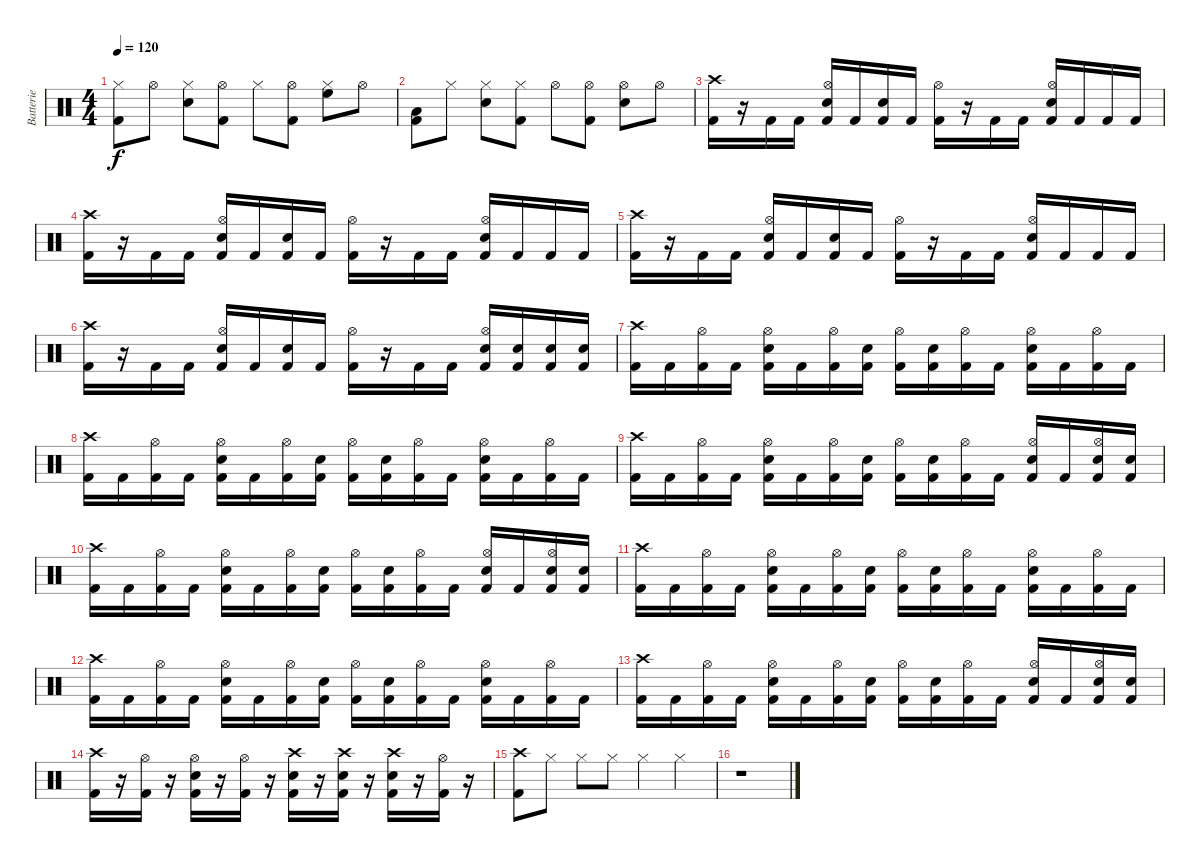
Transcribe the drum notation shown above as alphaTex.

\track ("Batterie" "Batterie") {instrument percussion}
\staff {score}
\articulation defaults
\ts (4 4)
\tempo 120
\clef neutral
\ks c
("Hi-Hat (closed)" "Kick (hit) 2").8{dy f} "Hi-Hat (open)".8 ("Hi-Hat (closed)" "Snare (hit) 2").8 ("Hi-Hat (open)" "Kick (hit) 2").8 "Hi-Hat (closed)".8 ("Hi-Hat (open)" "Kick (hit) 2").8 ("Hi-Hat (closed)" "High Floor Tom (hit)").8 "Hi-Hat (open)".8 |
("Low Tom (hit)" "Kick (hit) 2").8 "Hi-Hat (closed)".8 ("Hi-Hat (closed)" "Snare (hit) 2").8 ("Hi-Hat (closed)" "Kick (hit) 2").8 "Hi-Hat (open)".8 ("Hi-Hat (open)" "Kick (hit) 2").8 ("Hi-Hat (open)" "Snare (hit) 2").8 "Hi-Hat (open)".8 |
("Crash high (hit)" "Kick (hit) 2").16 r.16 "Kick (hit) 2".16 "Kick (hit) 2".16 ("Hi-Hat (open)" "Snare (hit) 2" "Kick (hit) 2").16 "Kick (hit) 2".16 ("Snare (hit) 2" "Kick (hit) 2").16 "Kick (hit) 2".16 ("Hi-Hat (open)" "Kick (hit) 2").16 r.16 "Kick (hit) 2".16 "Kick (hit) 2".16 ("Hi-Hat (open)" "Snare (hit) 2" "Kick (hit) 2").16 "Kick (hit) 2".16 "Kick (hit) 2".16 "Kick (hit) 2".16 |
("Crash high (hit)" "Kick (hit) 2").16 r.16 "Kick (hit) 2".16 "Kick (hit) 2".16 ("Hi-Hat (open)" "Snare (hit) 2" "Kick (hit) 2").16 "Kick (hit) 2".16 ("Snare (hit) 2" "Kick (hit) 2").16 "Kick (hit) 2".16 ("Hi-Hat (open)" "Kick (hit) 2").16 r.16 "Kick (hit) 2".16 "Kick (hit) 2".16 ("Hi-Hat (open)" "Snare (hit) 2" "Kick (hit) 2").16 "Kick (hit) 2".16 "Kick (hit) 2".16 "Kick (hit) 2".16 |
("Crash high (hit)" "Kick (hit) 2").16 r.16 "Kick (hit) 2".16 "Kick (hit) 2".16 ("Hi-Hat (open)" "Snare (hit) 2" "Kick (hit) 2").16 "Kick (hit) 2".16 ("Snare (hit) 2" "Kick (hit) 2").16 "Kick (hit) 2".16 ("Hi-Hat (open)" "Kick (hit) 2").16 r.16 "Kick (hit) 2".16 "Kick (hit) 2".16 ("Hi-Hat (open)" "Snare (hit) 2" "Kick (hit) 2").16 "Kick (hit) 2".16 "Kick (hit) 2".16 "Kick (hit) 2".16 |
("Crash high (hit)" "Kick (hit) 2").16 r.16 "Kick (hit) 2".16 "Kick (hit) 2".16 ("Hi-Hat (open)" "Snare (hit) 2" "Kick (hit) 2").16 "Kick (hit) 2".16 ("Snare (hit) 2" "Kick (hit) 2").16 "Kick (hit) 2".16 ("Hi-Hat (open)" "Kick (hit) 2").16 r.16 "Kick (hit) 2".16 "Kick (hit) 2".16 ("Hi-Hat (open)" "Snare (hit) 2" "Kick (hit) 2").16 ("Snare (hit) 2" "Kick (hit) 2").16 ("Snare (hit) 2" "Kick (hit) 2").16 ("Snare (hit) 2" "Kick (hit) 2").16 |
("Crash high (hit)" "Kick (hit) 2").16 "Kick (hit) 2".16 ("Hi-Hat (open)" "Kick (hit) 2").16 "Kick (hit) 2".16 ("Hi-Hat (open)" "Snare (hit) 2" "Kick (hit) 2").16 "Kick (hit) 2".16 ("Hi-Hat (open)" "Kick (hit) 2").16 ("Snare (hit) 2" "Kick (hit) 2").16 ("Hi-Hat (open)" "Kick (hit) 2").16 ("Snare (hit) 2" "Kick (hit) 2").16 ("Hi-Hat (open)" "Kick (hit) 2").16 "Kick (hit) 2".16 ("Hi-Hat (open)" "Snare (hit) 2" "Kick (hit) 2").16 "Kick (hit) 2".16 ("Hi-Hat (open)" "Kick (hit) 2").16 "Kick (hit) 2".16 |
("Crash high (hit)" "Kick (hit) 2").16 "Kick (hit) 2".16 ("Hi-Hat (open)" "Kick (hit) 2").16 "Kick (hit) 2".16 ("Hi-Hat (open)" "Snare (hit) 2" "Kick (hit) 2").16 "Kick (hit) 2".16 ("Hi-Hat (open)" "Kick (hit) 2").16 ("Snare (hit) 2" "Kick (hit) 2").16 ("Hi-Hat (open)" "Kick (hit) 2").16 ("Snare (hit) 2" "Kick (hit) 2").16 ("Hi-Hat (open)" "Kick (hit) 2").16 "Kick (hit) 2".16 ("Hi-Hat (open)" "Snare (hit) 2" "Kick (hit) 2").16 "Kick (hit) 2".16 ("Hi-Hat (open)" "Kick (hit) 2").16 "Kick (hit) 2".16 |
("Crash high (hit)" "Kick (hit) 2").16 "Kick (hit) 2".16 ("Hi-Hat (open)" "Kick (hit) 2").16 "Kick (hit) 2".16 ("Hi-Hat (open)" "Snare (hit) 2" "Kick (hit) 2").16 "Kick (hit) 2".16 ("Hi-Hat (open)" "Kick (hit) 2").16 ("Snare (hit) 2" "Kick (hit) 2").16 ("Hi-Hat (open)" "Kick (hit) 2").16 ("Snare (hit) 2" "Kick (hit) 2").16 ("Hi-Hat (open)" "Kick (hit) 2").16 "Kick (hit) 2".16 ("Hi-Hat (open)" "Snare (hit) 2" "Kick (hit) 2").16 "Kick (hit) 2".16 ("Hi-Hat (open)" "Snare (hit) 2" "Kick (hit) 2").16 ("Snare (hit) 2" "Kick (hit) 2").16 |
("Crash high (hit)" "Kick (hit) 2").16 "Kick (hit) 2".16 ("Hi-Hat (open)" "Kick (hit) 2").16 "Kick (hit) 2".16 ("Hi-Hat (open)" "Snare (hit) 2" "Kick (hit) 2").16 "Kick (hit) 2".16 ("Hi-Hat (open)" "Kick (hit) 2").16 ("Snare (hit) 2" "Kick (hit) 2").16 ("Hi-Hat (open)" "Kick (hit) 2").16 ("Snare (hit) 2" "Kick (hit) 2").16 ("Hi-Hat (open)" "Kick (hit) 2").16 "Kick (hit) 2".16 ("Hi-Hat (open)" "Snare (hit) 2" "Kick (hit) 2").16 "Kick (hit) 2".16 ("Hi-Hat (open)" "Snare (hit) 2" "Kick (hit) 2").16 ("Snare (hit) 2" "Kick (hit) 2").16 |
("Crash high (hit)" "Kick (hit) 2").16 "Kick (hit) 2".16 ("Hi-Hat (open)" "Kick (hit) 2").16 "Kick (hit) 2".16 ("Hi-Hat (open)" "Snare (hit) 2" "Kick (hit) 2").16 "Kick (hit) 2".16 ("Hi-Hat (open)" "Kick (hit) 2").16 ("Snare (hit) 2" "Kick (hit) 2").16 ("Hi-Hat (open)" "Kick (hit) 2").16 ("Snare (hit) 2" "Kick (hit) 2").16 ("Hi-Hat (open)" "Kick (hit) 2").16 "Kick (hit) 2".16 ("Hi-Hat (open)" "Snare (hit) 2" "Kick (hit) 2").16 "Kick (hit) 2".16 ("Hi-Hat (open)" "Kick (hit) 2").16 "Kick (hit) 2".16 |
("Crash high (hit)" "Kick (hit) 2").16 "Kick (hit) 2".16 ("Hi-Hat (open)" "Kick (hit) 2").16 "Kick (hit) 2".16 ("Hi-Hat (open)" "Snare (hit) 2" "Kick (hit) 2").16 "Kick (hit) 2".16 ("Hi-Hat (open)" "Kick (hit) 2").16 ("Snare (hit) 2" "Kick (hit) 2").16 ("Hi-Hat (open)" "Kick (hit) 2").16 ("Snare (hit) 2" "Kick (hit) 2").16 ("Hi-Hat (open)" "Kick (hit) 2").16 "Kick (hit) 2".16 ("Hi-Hat (open)" "Snare (hit) 2" "Kick (hit) 2").16 "Kick (hit) 2".16 ("Hi-Hat (open)" "Kick (hit) 2").16 "Kick (hit) 2".16 |
("Crash high (hit)" "Kick (hit) 2").16 "Kick (hit) 2".16 ("Hi-Hat (open)" "Kick (hit) 2").16 "Kick (hit) 2".16 ("Hi-Hat (open)" "Snare (hit) 2" "Kick (hit) 2").16 "Kick (hit) 2".16 ("Hi-Hat (open)" "Kick (hit) 2").16 ("Snare (hit) 2" "Kick (hit) 2").16 ("Hi-Hat (open)" "Kick (hit) 2").16 ("Snare (hit) 2" "Kick (hit) 2").16 ("Hi-Hat (open)" "Kick (hit) 2").16 "Kick (hit) 2".16 ("Hi-Hat (open)" "Snare (hit) 2" "Kick (hit) 2").16 "Kick (hit) 2".16 ("Hi-Hat (open)" "Snare (hit) 2" "Kick (hit) 2").16 ("Snare (hit) 2" "Kick (hit) 2").16 |
("Crash high (hit)" "Kick (hit) 2").16 r.16 ("Hi-Hat (open)" "Kick (hit) 2").16 r.16 ("Hi-Hat (open)" "Snare (hit) 2" "Kick (hit) 2").16 r.16 ("Hi-Hat (open)" "Kick (hit) 2").16 r.16 ("Crash high (hit)" "Snare (hit) 2" "Kick (hit) 2").16 r.16 ("Crash high (hit)" "Snare (hit) 2" "Kick (hit) 2").16 r.16 ("Crash high (hit)" "Snare (hit) 2" "Kick (hit) 2").16 r.16 ("Hi-Hat (open)" "Kick (hit) 2").16 r.16 |
("Crash high (hit)" "Kick (hit) 2").8 "Hi-Hat (closed)".8 "Hi-Hat (closed)".8 "Hi-Hat (closed)".8 "Hi-Hat (closed)".4 "Hi-Hat (closed)".4 |
r.1
